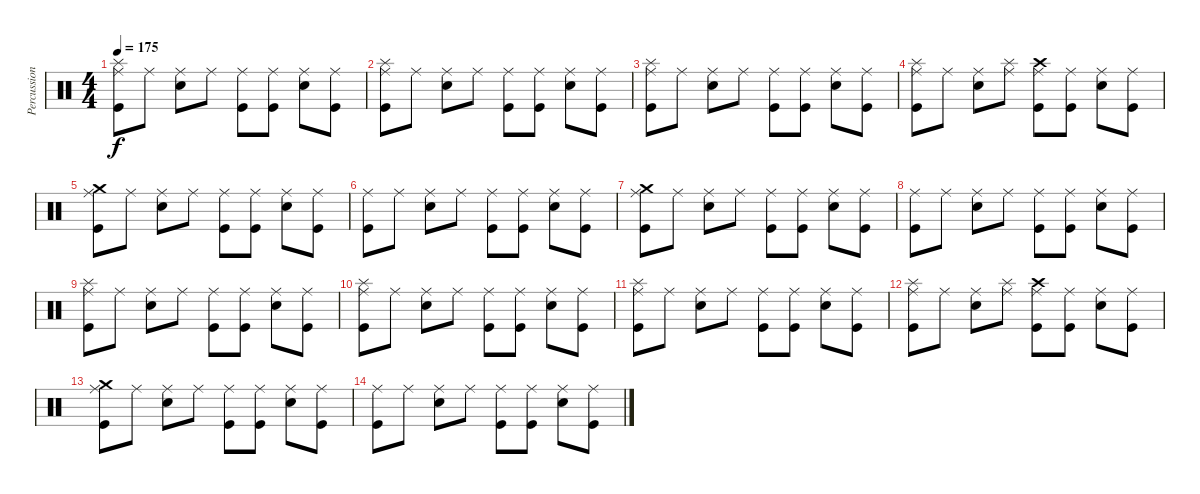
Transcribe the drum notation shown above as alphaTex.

\track ("Percussion" "Percussion") {instrument percussion}
\staff {score}
\articulation defaults
\ts (4 4)
\tempo 175
\clef neutral
\ks c
("Splash (hit)" "Ride (middle)" "Kick (hit)").8{dy f} "Ride (middle)".8 ("Ride (middle)" "Snare (hit) 2").8 "Ride (middle)".8 ("Ride (middle)" "Kick (hit)").8 ("Ride (middle)" "Kick (hit)").8 ("Ride (middle)" "Snare (hit) 2").8 ("Ride (middle)" "Kick (hit)").8 |
("Splash (hit)" "Ride (middle)" "Kick (hit)").8 "Ride (middle)".8 ("Ride (middle)" "Snare (hit) 2").8 "Ride (middle)".8 ("Ride (middle)" "Kick (hit)").8 ("Ride (middle)" "Kick (hit)").8 ("Ride (middle)" "Snare (hit) 2").8 ("Ride (middle)" "Kick (hit)").8 |
("Splash (hit)" "Ride (middle)" "Kick (hit)").8 "Ride (middle)".8 ("Ride (middle)" "Snare (hit) 2").8 "Ride (middle)".8 ("Ride (middle)" "Kick (hit)").8 ("Ride (middle)" "Kick (hit)").8 ("Ride (middle)" "Snare (hit) 2").8 ("Ride (middle)" "Kick (hit)").8 |
("Splash (hit)" "Ride (middle)" "Kick (hit)").8 "Ride (middle)".8 ("Ride (middle)" "Snare (hit) 2").8 ("Splash (hit)" "Ride (middle)").8 ("Crash high (hit)" "Ride (middle)" "Kick (hit)").8 ("Ride (middle)" "Kick (hit)").8 ("Ride (middle)" "Snare (hit) 2").8 ("Ride (middle)" "Kick (hit)").8 |
("Crash medium (hit)" "Ride (middle)" "Kick (hit)").8 "Ride (middle)".8 ("Ride (middle)" "Snare (hit) 2").8 "Ride (middle)".8 ("Ride (middle)" "Kick (hit)").8 ("Ride (middle)" "Kick (hit)").8 ("Ride (middle)" "Snare (hit) 2").8 ("Ride (middle)" "Kick (hit)").8 |
("Ride (middle)" "Kick (hit)").8 "Ride (middle)".8 ("Ride (middle)" "Snare (hit) 2").8 "Ride (middle)".8 ("Ride (middle)" "Kick (hit)").8 ("Ride (middle)" "Kick (hit)").8 ("Ride (middle)" "Snare (hit) 2").8 ("Ride (middle)" "Kick (hit)").8 |
("Crash medium (hit)" "Ride (middle)" "Kick (hit)").8 "Ride (middle)".8 ("Ride (middle)" "Snare (hit) 2").8 "Ride (middle)".8 ("Ride (middle)" "Kick (hit)").8 ("Ride (middle)" "Kick (hit)").8 ("Ride (middle)" "Snare (hit) 2").8 ("Ride (middle)" "Kick (hit)").8 |
("Ride (middle)" "Kick (hit)").8 "Ride (middle)".8 ("Ride (middle)" "Snare (hit) 2").8 "Ride (middle)".8 ("Ride (middle)" "Kick (hit)").8 ("Ride (middle)" "Kick (hit)").8 ("Ride (middle)" "Snare (hit) 2").8 ("Ride (middle)" "Kick (hit)").8 |
("Splash (hit)" "Ride (middle)" "Kick (hit)").8 "Ride (middle)".8 ("Ride (middle)" "Snare (hit) 2").8 "Ride (middle)".8 ("Ride (middle)" "Kick (hit)").8 ("Ride (middle)" "Kick (hit)").8 ("Ride (middle)" "Snare (hit) 2").8 ("Ride (middle)" "Kick (hit)").8 |
("Splash (hit)" "Ride (middle)" "Kick (hit)").8 "Ride (middle)".8 ("Ride (middle)" "Snare (hit) 2").8 "Ride (middle)".8 ("Ride (middle)" "Kick (hit)").8 ("Ride (middle)" "Kick (hit)").8 ("Ride (middle)" "Snare (hit) 2").8 ("Ride (middle)" "Kick (hit)").8 |
("Splash (hit)" "Ride (middle)" "Kick (hit)").8 "Ride (middle)".8 ("Ride (middle)" "Snare (hit) 2").8 "Ride (middle)".8 ("Ride (middle)" "Kick (hit)").8 ("Ride (middle)" "Kick (hit)").8 ("Ride (middle)" "Snare (hit) 2").8 ("Ride (middle)" "Kick (hit)").8 |
("Splash (hit)" "Ride (middle)" "Kick (hit)").8 "Ride (middle)".8 ("Ride (middle)" "Snare (hit) 2").8 ("Splash (hit)" "Ride (middle)").8 ("Crash high (hit)" "Ride (middle)" "Kick (hit)").8 ("Ride (middle)" "Kick (hit)").8 ("Ride (middle)" "Snare (hit) 2").8 ("Ride (middle)" "Kick (hit)").8 |
("Crash medium (hit)" "Ride (middle)" "Kick (hit)").8 "Ride (middle)".8 ("Ride (middle)" "Snare (hit) 2").8 "Ride (middle)".8 ("Ride (middle)" "Kick (hit)").8 ("Ride (middle)" "Kick (hit)").8 ("Ride (middle)" "Snare (hit) 2").8 ("Ride (middle)" "Kick (hit)").8 |
("Ride (middle)" "Kick (hit)").8 "Ride (middle)".8 ("Ride (middle)" "Snare (hit) 2").8 "Ride (middle)".8 ("Ride (middle)" "Kick (hit)").8 ("Ride (middle)" "Kick (hit)").8 ("Ride (middle)" "Snare (hit) 2").8 ("Ride (middle)" "Kick (hit)").8
